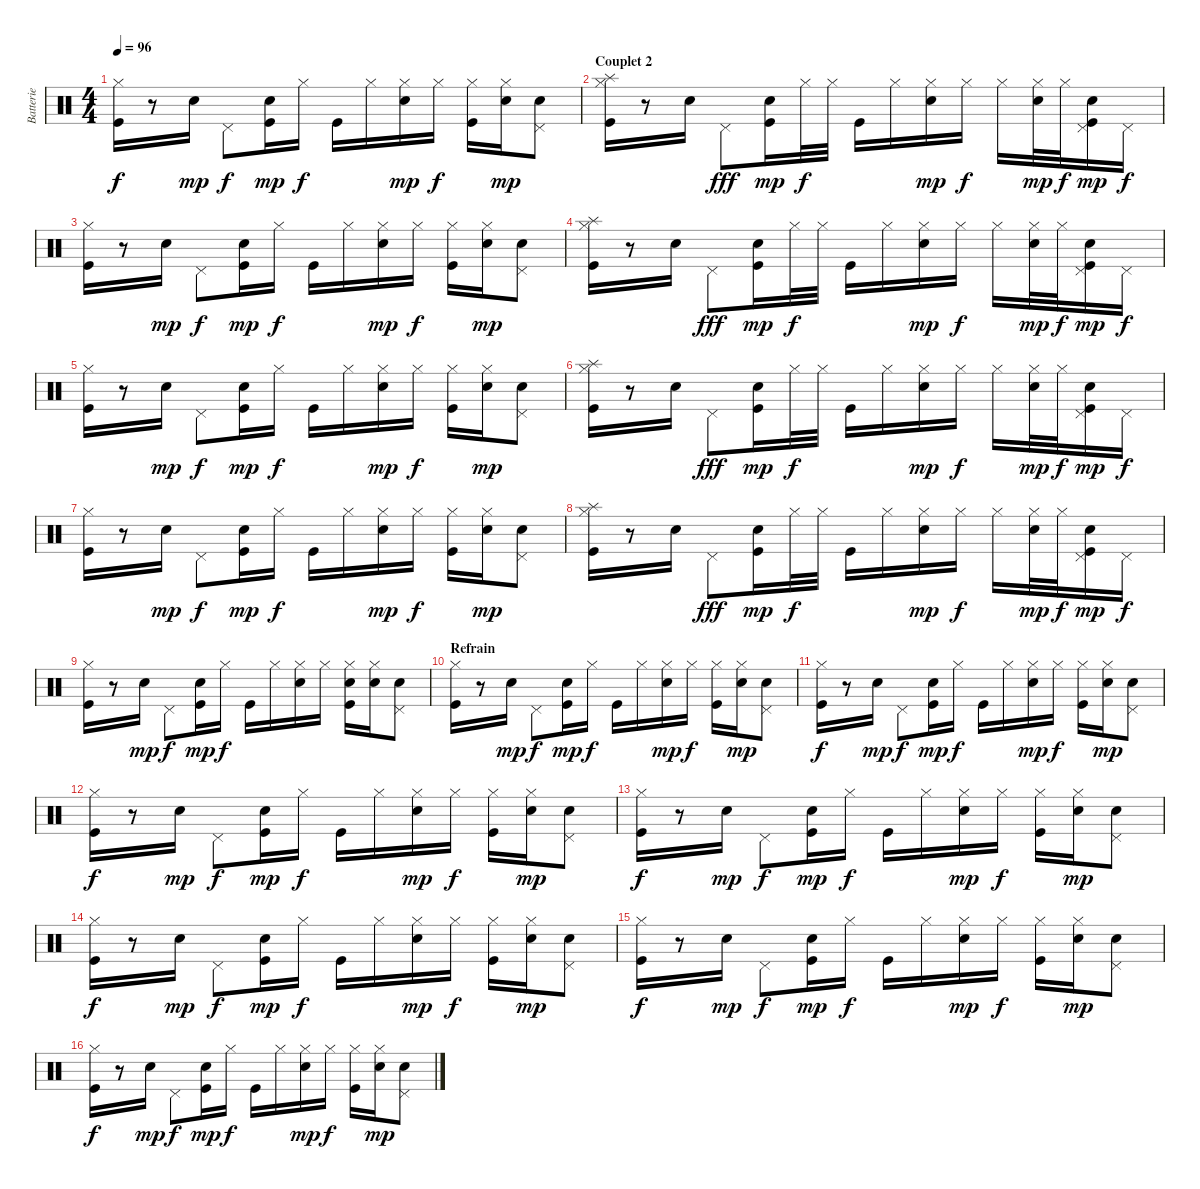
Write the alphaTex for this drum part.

\track ("Batterie" "Batterie") {instrument percussion}
\staff {score}
\articulation defaults
\ts (4 4)
\tempo 96
\clef neutral
\ks c
("Hi-Hat (closed)" "Kick (hit)").16{dy f} r.8 "Electric Snare (hit)".16{dy mp} "Pedal Hi-Hat (hit)".8{dy f} ("Electric Snare (hit)" "Kick (hit)").16{dy mp} "Hi-Hat (closed)".16{dy f} "Kick (hit)".16 "Hi-Hat (closed)".16 ("Hi-Hat (closed)" "Electric Snare (hit)").16{dy mp} "Hi-Hat (closed)".16{dy f} ("Hi-Hat (closed)" "Kick (hit)").16 ("Hi-Hat (closed)" "Electric Snare (hit)").16{dy mp} ("Pedal Hi-Hat (hit)" "Electric Snare (hit)").8 |
\section ("" "Couplet 2")
("Splash (hit)" "Hi-Hat (closed)" "Kick (hit)").16 r.8 "Electric Snare (hit)".16 "Pedal Hi-Hat (hit)".8{dy fff} ("Electric Snare (hit)" "Kick (hit)").16{dy mp} "Hi-Hat (closed)".32{dy f} "Hi-Hat (closed)".32 "Kick (hit)".16 "Hi-Hat (closed)".16 ("Hi-Hat (closed)" "Electric Snare (hit)").16{dy mp} "Hi-Hat (closed)".16{dy f} "Hi-Hat (closed)".16 ("Hi-Hat (closed)" "Electric Snare (hit)").32{dy mp} "Hi-Hat (closed)".32{dy f} ("Pedal Hi-Hat (hit)" "Electric Snare (hit)" "Kick (hit)").16{dy mp} "Pedal Hi-Hat (hit)".16{dy f} |
("Hi-Hat (closed)" "Kick (hit)").16 r.8 "Electric Snare (hit)".16{dy mp} "Pedal Hi-Hat (hit)".8{dy f} ("Electric Snare (hit)" "Kick (hit)").16{dy mp} "Hi-Hat (closed)".16{dy f} "Kick (hit)".16 "Hi-Hat (closed)".16 ("Hi-Hat (closed)" "Electric Snare (hit)").16{dy mp} "Hi-Hat (closed)".16{dy f} ("Hi-Hat (closed)" "Kick (hit)").16 ("Hi-Hat (closed)" "Electric Snare (hit)").16{dy mp} ("Pedal Hi-Hat (hit)" "Electric Snare (hit)").8 |
("Splash (hit)" "Hi-Hat (closed)" "Kick (hit)").16 r.8 "Electric Snare (hit)".16 "Pedal Hi-Hat (hit)".8{dy fff} ("Electric Snare (hit)" "Kick (hit)").16{dy mp} "Hi-Hat (closed)".32{dy f} "Hi-Hat (closed)".32 "Kick (hit)".16 "Hi-Hat (closed)".16 ("Hi-Hat (closed)" "Electric Snare (hit)").16{dy mp} "Hi-Hat (closed)".16{dy f} "Hi-Hat (closed)".16 ("Hi-Hat (closed)" "Electric Snare (hit)").32{dy mp} "Hi-Hat (closed)".32{dy f} ("Pedal Hi-Hat (hit)" "Electric Snare (hit)" "Kick (hit)").16{dy mp} "Pedal Hi-Hat (hit)".16{dy f} |
("Hi-Hat (closed)" "Kick (hit)").16 r.8 "Electric Snare (hit)".16{dy mp} "Pedal Hi-Hat (hit)".8{dy f} ("Electric Snare (hit)" "Kick (hit)").16{dy mp} "Hi-Hat (closed)".16{dy f} "Kick (hit)".16 "Hi-Hat (closed)".16 ("Hi-Hat (closed)" "Electric Snare (hit)").16{dy mp} "Hi-Hat (closed)".16{dy f} ("Hi-Hat (closed)" "Kick (hit)").16 ("Hi-Hat (closed)" "Electric Snare (hit)").16{dy mp} ("Pedal Hi-Hat (hit)" "Electric Snare (hit)").8 |
("Splash (hit)" "Hi-Hat (closed)" "Kick (hit)").16 r.8 "Electric Snare (hit)".16 "Pedal Hi-Hat (hit)".8{dy fff} ("Electric Snare (hit)" "Kick (hit)").16{dy mp} "Hi-Hat (closed)".32{dy f} "Hi-Hat (closed)".32 "Kick (hit)".16 "Hi-Hat (closed)".16 ("Hi-Hat (closed)" "Electric Snare (hit)").16{dy mp} "Hi-Hat (closed)".16{dy f} "Hi-Hat (closed)".16 ("Hi-Hat (closed)" "Electric Snare (hit)").32{dy mp} "Hi-Hat (closed)".32{dy f} ("Pedal Hi-Hat (hit)" "Electric Snare (hit)" "Kick (hit)").16{dy mp} "Pedal Hi-Hat (hit)".16{dy f} |
("Hi-Hat (closed)" "Kick (hit)").16 r.8 "Electric Snare (hit)".16{dy mp} "Pedal Hi-Hat (hit)".8{dy f} ("Electric Snare (hit)" "Kick (hit)").16{dy mp} "Hi-Hat (closed)".16{dy f} "Kick (hit)".16 "Hi-Hat (closed)".16 ("Hi-Hat (closed)" "Electric Snare (hit)").16{dy mp} "Hi-Hat (closed)".16{dy f} ("Hi-Hat (closed)" "Kick (hit)").16 ("Hi-Hat (closed)" "Electric Snare (hit)").16{dy mp} ("Pedal Hi-Hat (hit)" "Electric Snare (hit)").8 |
("Splash (hit)" "Hi-Hat (closed)" "Kick (hit)").16 r.8 "Electric Snare (hit)".16 "Pedal Hi-Hat (hit)".8{dy fff} ("Electric Snare (hit)" "Kick (hit)").16{dy mp} "Hi-Hat (closed)".32{dy f} "Hi-Hat (closed)".32 "Kick (hit)".16 "Hi-Hat (closed)".16 ("Hi-Hat (closed)" "Electric Snare (hit)").16{dy mp} "Hi-Hat (closed)".16{dy f} "Hi-Hat (closed)".16 ("Hi-Hat (closed)" "Electric Snare (hit)").32{dy mp} "Hi-Hat (closed)".32{dy f} ("Pedal Hi-Hat (hit)" "Electric Snare (hit)" "Kick (hit)").16{dy mp} "Pedal Hi-Hat (hit)".16{dy f} |
("Hi-Hat (closed)" "Kick (hit)").16 r.8 "Electric Snare (hit)".16{dy mp} "Pedal Hi-Hat (hit)".8{dy f} ("Electric Snare (hit)" "Kick (hit)").16{dy mp} "Hi-Hat (closed)".16{dy f} "Kick (hit)".16 "Hi-Hat (closed)".16 ("Hi-Hat (closed)" "Electric Snare (hit)").16 "Hi-Hat (closed)".16 ("Hi-Hat (closed)" "Electric Snare (hit)" "Kick (hit)").16 ("Hi-Hat (closed)" "Electric Snare (hit)").16 ("Pedal Hi-Hat (hit)" "Electric Snare (hit)").8 |
\section ("" "Refrain")
("Hi-Hat (closed)" "Kick (hit)").16 r.8 "Electric Snare (hit)".16{dy mp} "Pedal Hi-Hat (hit)".8{dy f} ("Electric Snare (hit)" "Kick (hit)").16{dy mp} "Hi-Hat (closed)".16{dy f} "Kick (hit)".16 "Hi-Hat (closed)".16 ("Hi-Hat (closed)" "Electric Snare (hit)").16{dy mp} "Hi-Hat (closed)".16{dy f} ("Hi-Hat (closed)" "Kick (hit)").16 ("Hi-Hat (closed)" "Electric Snare (hit)").16{dy mp} ("Pedal Hi-Hat (hit)" "Electric Snare (hit)").8 |
("Hi-Hat (closed)" "Kick (hit)").16{dy f} r.8 "Electric Snare (hit)".16{dy mp} "Pedal Hi-Hat (hit)".8{dy f} ("Electric Snare (hit)" "Kick (hit)").16{dy mp} "Hi-Hat (closed)".16{dy f} "Kick (hit)".16 "Hi-Hat (closed)".16 ("Hi-Hat (closed)" "Electric Snare (hit)").16{dy mp} "Hi-Hat (closed)".16{dy f} ("Hi-Hat (closed)" "Kick (hit)").16 ("Hi-Hat (closed)" "Electric Snare (hit)").16{dy mp} ("Pedal Hi-Hat (hit)" "Electric Snare (hit)").8 |
("Hi-Hat (closed)" "Kick (hit)").16{dy f} r.8 "Electric Snare (hit)".16{dy mp} "Pedal Hi-Hat (hit)".8{dy f} ("Electric Snare (hit)" "Kick (hit)").16{dy mp} "Hi-Hat (closed)".16{dy f} "Kick (hit)".16 "Hi-Hat (closed)".16 ("Hi-Hat (closed)" "Electric Snare (hit)").16{dy mp} "Hi-Hat (closed)".16{dy f} ("Hi-Hat (closed)" "Kick (hit)").16 ("Hi-Hat (closed)" "Electric Snare (hit)").16{dy mp} ("Pedal Hi-Hat (hit)" "Electric Snare (hit)").8 |
("Hi-Hat (closed)" "Kick (hit)").16{dy f} r.8 "Electric Snare (hit)".16{dy mp} "Pedal Hi-Hat (hit)".8{dy f} ("Electric Snare (hit)" "Kick (hit)").16{dy mp} "Hi-Hat (closed)".16{dy f} "Kick (hit)".16 "Hi-Hat (closed)".16 ("Hi-Hat (closed)" "Electric Snare (hit)").16{dy mp} "Hi-Hat (closed)".16{dy f} ("Hi-Hat (closed)" "Kick (hit)").16 ("Hi-Hat (closed)" "Electric Snare (hit)").16{dy mp} ("Pedal Hi-Hat (hit)" "Electric Snare (hit)").8 |
("Hi-Hat (closed)" "Kick (hit)").16{dy f} r.8 "Electric Snare (hit)".16{dy mp} "Pedal Hi-Hat (hit)".8{dy f} ("Electric Snare (hit)" "Kick (hit)").16{dy mp} "Hi-Hat (closed)".16{dy f} "Kick (hit)".16 "Hi-Hat (closed)".16 ("Hi-Hat (closed)" "Electric Snare (hit)").16{dy mp} "Hi-Hat (closed)".16{dy f} ("Hi-Hat (closed)" "Kick (hit)").16 ("Hi-Hat (closed)" "Electric Snare (hit)").16{dy mp} ("Pedal Hi-Hat (hit)" "Electric Snare (hit)").8 |
("Hi-Hat (closed)" "Kick (hit)").16{dy f} r.8 "Electric Snare (hit)".16{dy mp} "Pedal Hi-Hat (hit)".8{dy f} ("Electric Snare (hit)" "Kick (hit)").16{dy mp} "Hi-Hat (closed)".16{dy f} "Kick (hit)".16 "Hi-Hat (closed)".16 ("Hi-Hat (closed)" "Electric Snare (hit)").16{dy mp} "Hi-Hat (closed)".16{dy f} ("Hi-Hat (closed)" "Kick (hit)").16 ("Hi-Hat (closed)" "Electric Snare (hit)").16{dy mp} ("Pedal Hi-Hat (hit)" "Electric Snare (hit)").8 |
("Hi-Hat (closed)" "Kick (hit)").16{dy f} r.8 "Electric Snare (hit)".16{dy mp} "Pedal Hi-Hat (hit)".8{dy f} ("Electric Snare (hit)" "Kick (hit)").16{dy mp} "Hi-Hat (closed)".16{dy f} "Kick (hit)".16 "Hi-Hat (closed)".16 ("Hi-Hat (closed)" "Electric Snare (hit)").16{dy mp} "Hi-Hat (closed)".16{dy f} ("Hi-Hat (closed)" "Kick (hit)").16 ("Hi-Hat (closed)" "Electric Snare (hit)").16{dy mp} ("Pedal Hi-Hat (hit)" "Electric Snare (hit)").8
